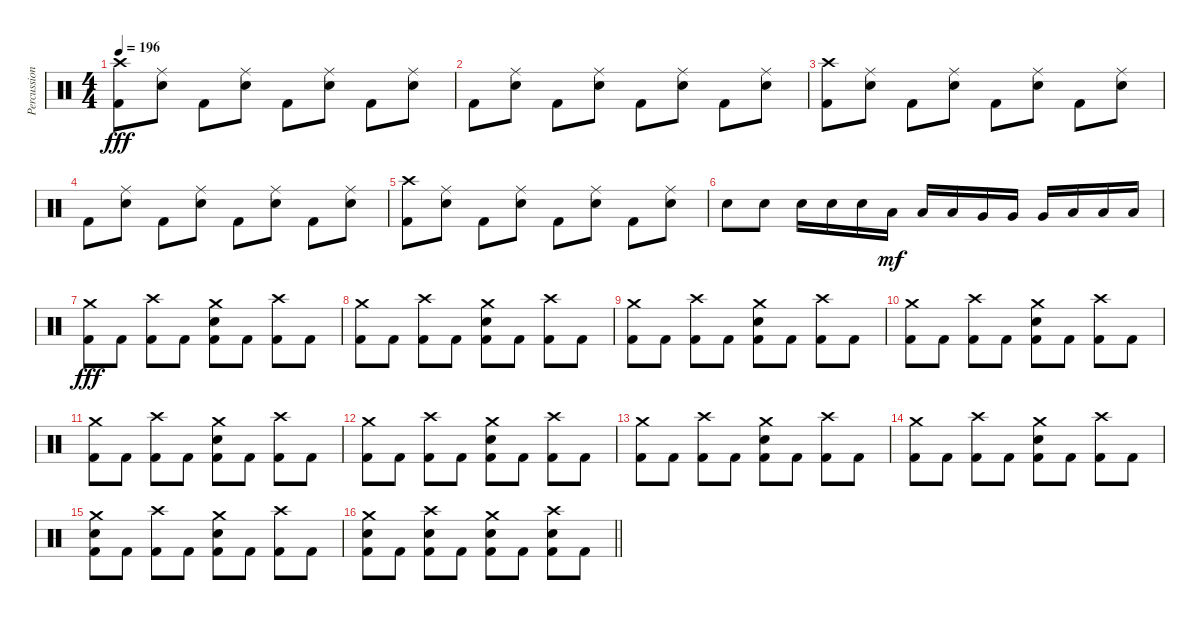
\track ("Percussion" "Percussion") {instrument percussion}
\staff {score}
\articulation defaults
\ts (4 4)
\tempo 196
\clef neutral
\ks c
("Crash high (hit)" "Kick (hit) 2").8{dy fff} ("Ride (middle)" "Electric Snare (hit)").8 "Kick (hit) 2".8 ("Ride (middle)" "Electric Snare (hit)").8 "Kick (hit) 2".8 ("Ride (middle)" "Electric Snare (hit)").8 "Kick (hit) 2".8 ("Ride (middle)" "Electric Snare (hit)").8 |
"Kick (hit) 2".8 ("Ride (middle)" "Electric Snare (hit)").8 "Kick (hit) 2".8 ("Ride (middle)" "Electric Snare (hit)").8 "Kick (hit) 2".8 ("Ride (middle)" "Electric Snare (hit)").8 "Kick (hit) 2".8 ("Ride (middle)" "Electric Snare (hit)").8 |
("Crash high (hit)" "Kick (hit) 2").8 ("Ride (middle)" "Electric Snare (hit)").8 "Kick (hit) 2".8 ("Ride (middle)" "Electric Snare (hit)").8 "Kick (hit) 2".8 ("Ride (middle)" "Electric Snare (hit)").8 "Kick (hit) 2".8 ("Ride (middle)" "Electric Snare (hit)").8 |
"Kick (hit) 2".8 ("Ride (middle)" "Electric Snare (hit)").8 "Kick (hit) 2".8 ("Ride (middle)" "Electric Snare (hit)").8 "Kick (hit) 2".8 ("Ride (middle)" "Electric Snare (hit)").8 "Kick (hit) 2".8 ("Ride (middle)" "Electric Snare (hit)").8 |
("Crash high (hit)" "Kick (hit) 2").8 ("Ride (middle)" "Electric Snare (hit)").8 "Kick (hit) 2".8 ("Ride (middle)" "Electric Snare (hit)").8 "Kick (hit) 2".8 ("Ride (middle)" "Electric Snare (hit)").8 "Kick (hit) 2".8 ("Ride (middle)" "Electric Snare (hit)").8 |
"Electric Snare (hit)".8 "Electric Snare (hit)".8 "Electric Snare (hit)".16 "Electric Snare (hit)".16 "Electric Snare (hit)".16 "Low Tom (hit)".16{dy mf} "Low Tom (hit)".16 "Low Tom (hit)".16 "Very Low Tom (hit)".16 "Very Low Tom (hit)".16 "Very Low Tom (hit)".16 "Low Floor Tom (hit)".16 "Low Floor Tom (hit)".16 "Low Floor Tom (hit)".16 |
("Crash medium (hit)" "Kick (hit) 2").8{dy fff} "Kick (hit) 2".8 ("Crash high (hit)" "Kick (hit) 2").8 "Kick (hit) 2".8 ("Crash medium (hit)" "Electric Snare (hit)" "Kick (hit) 2").8 "Kick (hit) 2".8 ("Crash high (hit)" "Kick (hit) 2").8 "Kick (hit) 2".8 |
("Crash medium (hit)" "Kick (hit) 2").8 "Kick (hit) 2".8 ("Crash high (hit)" "Kick (hit) 2").8 "Kick (hit) 2".8 ("Crash medium (hit)" "Electric Snare (hit)" "Kick (hit) 2").8 "Kick (hit) 2".8 ("Crash high (hit)" "Kick (hit) 2").8 "Kick (hit) 2".8 |
("Crash medium (hit)" "Kick (hit) 2").8 "Kick (hit) 2".8 ("Crash high (hit)" "Kick (hit) 2").8 "Kick (hit) 2".8 ("Crash medium (hit)" "Electric Snare (hit)" "Kick (hit) 2").8 "Kick (hit) 2".8 ("Crash high (hit)" "Kick (hit) 2").8 "Kick (hit) 2".8 |
("Crash medium (hit)" "Kick (hit) 2").8 "Kick (hit) 2".8 ("Crash high (hit)" "Kick (hit) 2").8 "Kick (hit) 2".8 ("Crash medium (hit)" "Electric Snare (hit)" "Kick (hit) 2").8 "Kick (hit) 2".8 ("Crash high (hit)" "Kick (hit) 2").8 "Kick (hit) 2".8 |
("Crash medium (hit)" "Kick (hit) 2").8 "Kick (hit) 2".8 ("Crash high (hit)" "Kick (hit) 2").8 "Kick (hit) 2".8 ("Crash medium (hit)" "Electric Snare (hit)" "Kick (hit) 2").8 "Kick (hit) 2".8 ("Crash high (hit)" "Kick (hit) 2").8 "Kick (hit) 2".8 |
("Crash medium (hit)" "Kick (hit) 2").8 "Kick (hit) 2".8 ("Crash high (hit)" "Kick (hit) 2").8 "Kick (hit) 2".8 ("Crash medium (hit)" "Electric Snare (hit)" "Kick (hit) 2").8 "Kick (hit) 2".8 ("Crash high (hit)" "Kick (hit) 2").8 "Kick (hit) 2".8 |
("Crash medium (hit)" "Kick (hit) 2").8 "Kick (hit) 2".8 ("Crash high (hit)" "Kick (hit) 2").8 "Kick (hit) 2".8 ("Crash medium (hit)" "Electric Snare (hit)" "Kick (hit) 2").8 "Kick (hit) 2".8 ("Crash high (hit)" "Kick (hit) 2").8 "Kick (hit) 2".8 |
("Crash medium (hit)" "Kick (hit) 2").8 "Kick (hit) 2".8 ("Crash high (hit)" "Kick (hit) 2").8 "Kick (hit) 2".8 ("Crash medium (hit)" "Electric Snare (hit)" "Kick (hit) 2").8 "Kick (hit) 2".8 ("Crash high (hit)" "Kick (hit) 2").8 "Kick (hit) 2".8 |
("Crash medium (hit)" "Electric Snare (hit)" "Kick (hit) 2").8 "Kick (hit) 2".8 ("Crash high (hit)" "Kick (hit) 2").8 "Kick (hit) 2".8 ("Crash medium (hit)" "Electric Snare (hit)" "Kick (hit) 2").8 "Kick (hit) 2".8 ("Crash high (hit)" "Kick (hit) 2").8 "Kick (hit) 2".8 |
\barLineRight lightlight
("Crash medium (hit)" "Electric Snare (hit)" "Kick (hit) 2").8 "Kick (hit) 2".8 ("Crash high (hit)" "Electric Snare (hit)" "Kick (hit) 2").8 "Kick (hit) 2".8 ("Crash medium (hit)" "Electric Snare (hit)" "Kick (hit) 2").8 "Kick (hit) 2".8 ("Crash high (hit)" "Electric Snare (hit)" "Kick (hit) 2").8 "Kick (hit) 2".8
